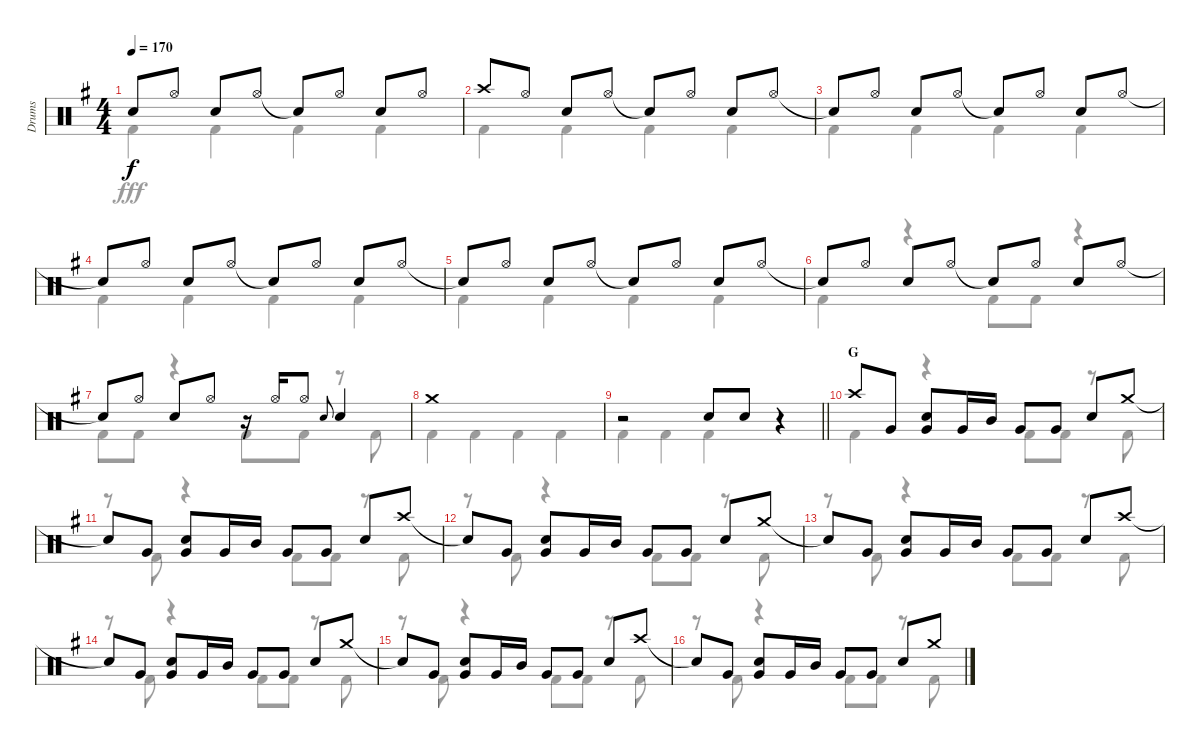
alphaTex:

\track ("Drums" "Drums") {instrument percussion}
\staff {score}
\articulation defaults
\voice
\ts (4 4)
\tempo 170
\clef neutral
\ks g "Snare (hit)"{t}.8{dy f} "Hi-Hat (open)".8 "Snare (hit) 2".8 "Hi-Hat (open)".8 "Snare (hit)"{t}.8 "Hi-Hat (open)".8 "Snare (hit) 2".8 "Hi-Hat (open)".8
|
"Crash high (hit)".8 "Hi-Hat (open)".8 "Snare (hit) 2".8 "Hi-Hat (open)".8 "Snare (hit)"{t}.8 "Hi-Hat (open)".8 "Snare (hit) 2".8 "Hi-Hat (open)".8 |
"Snare (hit)"{t}.8 "Hi-Hat (open)".8 "Snare (hit) 2".8 "Hi-Hat (open)".8 "Snare (hit)"{t}.8 "Hi-Hat (open)".8 "Snare (hit) 2".8 "Hi-Hat (open)".8 |
"Snare (hit)"{t}.8 "Hi-Hat (open)".8 "Snare (hit) 2".8 "Hi-Hat (open)".8 "Snare (hit)"{t}.8 "Hi-Hat (open)".8 "Snare (hit) 2".8 "Hi-Hat (open)".8 |
"Snare (hit)"{t}.8 "Hi-Hat (open)".8 "Snare (hit) 2".8 "Hi-Hat (open)".8 "Snare (hit)"{t}.8 "Hi-Hat (open)".8 "Snare (hit) 2".8 "Hi-Hat (open)".8 |
"Snare (hit)"{t}.8 "Hi-Hat (open)".8 "Snare (hit) 2".8 "Hi-Hat (open)".8 "Snare (hit)"{t}.8 "Hi-Hat (open)".8 "Snare (hit) 2".8 "Hi-Hat (open)".8 |
"Snare (hit)"{t}.8 "Hi-Hat (open)".8 "Snare (hit) 2".8 "Hi-Hat (open)".8 r.16 "Hi-Hat (open)".16 "Hi-Hat (open)".8 "Snare (hit) 2".8{gr onbeat} "Snare (hit) 2".4 |
"Crash medium (hit)".1 |
\barLineRight lightlight
r.2 "Snare (hit) 2".8 "Snare (hit) 2".8 r.4 |
\section ("" "G")
"Crash high (hit)".8 "Very Low Tom (hit)".8 ("Snare (hit) 2" "Very Low Tom (hit)").8 "Very Low Tom (hit)".16 "Mid Tom (hit)".16 "Very Low Tom (hit)".8 "Very Low Tom (hit)".8 "Snare (hit) 2".8 "Crash medium (hit)".8 |
"Snare (hit)"{t}.8 "Very Low Tom (hit)".8 ("Snare (hit) 2" "Very Low Tom (hit)").8 "Very Low Tom (hit)".16 "Mid Tom (hit)".16 "Very Low Tom (hit)".8 "Very Low Tom (hit)".8 "Snare (hit) 2".8 "Crash high (hit)".8 |
"Snare (hit)"{t}.8 "Very Low Tom (hit)".8 ("Snare (hit) 2" "Very Low Tom (hit)").8 "Very Low Tom (hit)".16 "Mid Tom (hit)".16 "Very Low Tom (hit)".8 "Very Low Tom (hit)".8 "Snare (hit) 2".8 "Crash medium (hit)".8 |
"Snare (hit)"{t}.8 "Very Low Tom (hit)".8 ("Snare (hit) 2" "Very Low Tom (hit)").8 "Very Low Tom (hit)".16 "Mid Tom (hit)".16 "Very Low Tom (hit)".8 "Very Low Tom (hit)".8 "Snare (hit) 2".8 "Crash high (hit)".8 |
"Snare (hit)"{t}.8 "Very Low Tom (hit)".8 ("Snare (hit) 2" "Very Low Tom (hit)").8 "Very Low Tom (hit)".16 "Mid Tom (hit)".16 "Very Low Tom (hit)".8 "Very Low Tom (hit)".8 "Snare (hit) 2".8 "Crash medium (hit)".8 |
"Snare (hit)"{t}.8 "Very Low Tom (hit)".8 ("Snare (hit) 2" "Very Low Tom (hit)").8 "Very Low Tom (hit)".16 "Mid Tom (hit)".16 "Very Low Tom (hit)".8 "Very Low Tom (hit)".8 "Snare (hit) 2".8 "Crash high (hit)".8 |
"Snare (hit)"{t}.8 "Very Low Tom (hit)".8 ("Snare (hit) 2" "Very Low Tom (hit)").8 "Very Low Tom (hit)".16 "Mid Tom (hit)".16 "Very Low Tom (hit)".8 "Very Low Tom (hit)".8 "Snare (hit) 2".8 "Crash medium (hit)".8
\voice
\clef neutral
\ottava regular
\simile none
\ks g "Kick (hit) 2".4{dy fff} "Kick (hit) 2".4 "Kick (hit) 2".4 "Kick (hit) 2".4
|
"Kick (hit) 2".4 "Kick (hit) 2".4 "Kick (hit) 2".4 "Kick (hit) 2".4 |
"Kick (hit) 2".4 "Kick (hit) 2".4 "Kick (hit) 2".4 "Kick (hit) 2".4 |
"Kick (hit) 2".4 "Kick (hit) 2".4 "Kick (hit) 2".4 "Kick (hit) 2".4 |
"Kick (hit) 2".4 "Kick (hit) 2".4 "Kick (hit) 2".4 "Kick (hit) 2".4 |
"Kick (hit) 2".4 r.4 "Kick (hit) 2".8 "Kick (hit) 2".8 r.4 |
"Kick (hit) 2".8 "Kick (hit) 2".8 r.4 "Kick (hit) 2".8 "Kick (hit) 2".8 r.8 "Kick (hit) 2".8 |
"Kick (hit) 2".4 "Kick (hit) 2".4 "Kick (hit) 2".4 "Kick (hit) 2".4 |
\barLineRight lightlight "Kick (hit) 2".4 "Kick (hit) 2".4 "Kick (hit) 2".4
r.4 |
"Kick (hit) 2".4 r.4 "Kick (hit) 2".8 "Kick (hit) 2".8 r.8 "Kick (hit) 2".8 |
r.8 "Kick (hit) 2".8 r.4 "Kick (hit) 2".8 "Kick (hit) 2".8 r.8 "Kick (hit) 2".8 |
r.8 "Kick (hit) 2".8 r.4 "Kick (hit) 2".8 "Kick (hit) 2".8 r.8 "Kick (hit) 2".8 |
r.8 "Kick (hit) 2".8 r.4 "Kick (hit) 2".8 "Kick (hit) 2".8 r.8 "Kick (hit) 2".8 |
r.8 "Kick (hit) 2".8 r.4 "Kick (hit) 2".8 "Kick (hit) 2".8 r.8 "Kick (hit) 2".8 |
r.8 "Kick (hit) 2".8 r.4 "Kick (hit) 2".8 "Kick (hit) 2".8 r.8 "Kick (hit) 2".8 |
r.8 "Kick (hit) 2".8 r.4 "Kick (hit) 2".8 "Kick (hit) 2".8 r.8 "Kick (hit) 2".8
